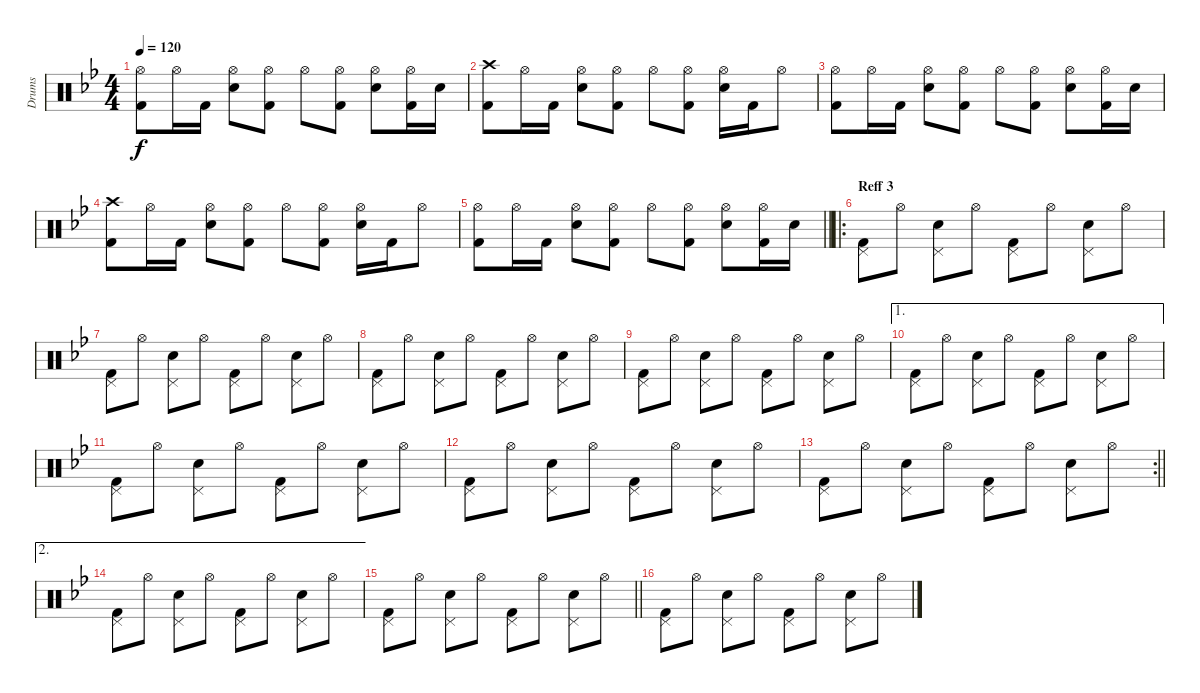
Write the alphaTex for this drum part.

\track ("Drums" "Drums") {instrument percussion}
\staff {score}
\articulation defaults
\ts (4 4)
\tempo 120
\clef neutral
\ks bb
("Kick (hit) 2" "Hi-Hat (open)").8{dy f} "Hi-Hat (open)".16 "Kick (hit) 2".16 ("Hi-Hat (open)" "Electric Snare (hit)").8 ("Hi-Hat (open)" "Kick (hit) 2").8 "Hi-Hat (open)".8 ("Hi-Hat (open)" "Kick (hit) 2").8 ("Hi-Hat (open)" "Electric Snare (hit)").8 ("Kick (hit) 2" "Hi-Hat (open)").16 "Electric Snare (hit)".16 |
("Kick (hit) 2" "Crash high (hit)").8 "Hi-Hat (open)".16 "Kick (hit) 2".16 ("Hi-Hat (open)" "Electric Snare (hit)").8 ("Hi-Hat (open)" "Kick (hit) 2").8 "Hi-Hat (open)".8 ("Hi-Hat (open)" "Kick (hit) 2").8 ("Hi-Hat (open)" "Electric Snare (hit)").16 "Kick (hit) 2".16 "Hi-Hat (open)".8 |
("Kick (hit) 2" "Hi-Hat (open)").8 "Hi-Hat (open)".16 "Kick (hit) 2".16 ("Hi-Hat (open)" "Electric Snare (hit)").8 ("Hi-Hat (open)" "Kick (hit) 2").8 "Hi-Hat (open)".8 ("Hi-Hat (open)" "Kick (hit) 2").8 ("Hi-Hat (open)" "Electric Snare (hit)").8 ("Kick (hit) 2" "Hi-Hat (open)").16 "Electric Snare (hit)".16 |
("Kick (hit) 2" "Crash high (hit)").8 "Hi-Hat (open)".16 "Kick (hit) 2".16 ("Hi-Hat (open)" "Electric Snare (hit)").8 ("Hi-Hat (open)" "Kick (hit) 2").8 "Hi-Hat (open)".8 ("Hi-Hat (open)" "Kick (hit) 2").8 ("Hi-Hat (open)" "Electric Snare (hit)").16 "Kick (hit) 2".16 "Hi-Hat (open)".8 |
\barLineRight lightlight
("Kick (hit) 2" "Hi-Hat (open)").8 "Hi-Hat (open)".16 "Kick (hit) 2".16 ("Hi-Hat (open)" "Electric Snare (hit)").8 ("Hi-Hat (open)" "Kick (hit) 2").8 "Hi-Hat (open)".8 ("Hi-Hat (open)" "Kick (hit) 2").8 ("Hi-Hat (open)" "Electric Snare (hit)").8 ("Kick (hit) 2" "Hi-Hat (open)").16 "Electric Snare (hit)".16 |
\ro
\section ("" "Reff 3")
("Pedal Hi-Hat (hit)" "Kick (hit) 2").8 "Hi-Hat (open)".8 ("Electric Snare (hit)" "Pedal Hi-Hat (hit)").8 "Hi-Hat (open)".8 ("Pedal Hi-Hat (hit)" "Kick (hit) 2").8 "Hi-Hat (open)".8 ("Electric Snare (hit)" "Pedal Hi-Hat (hit)").8 "Hi-Hat (open)".8 |
("Pedal Hi-Hat (hit)" "Kick (hit) 2").8 "Hi-Hat (open)".8 ("Electric Snare (hit)" "Pedal Hi-Hat (hit)").8 "Hi-Hat (open)".8 ("Pedal Hi-Hat (hit)" "Kick (hit) 2").8 "Hi-Hat (open)".8 ("Electric Snare (hit)" "Pedal Hi-Hat (hit)").8 "Hi-Hat (open)".8 |
("Pedal Hi-Hat (hit)" "Kick (hit) 2").8 "Hi-Hat (open)".8 ("Electric Snare (hit)" "Pedal Hi-Hat (hit)").8 "Hi-Hat (open)".8 ("Pedal Hi-Hat (hit)" "Kick (hit) 2").8 "Hi-Hat (open)".8 ("Electric Snare (hit)" "Pedal Hi-Hat (hit)").8 "Hi-Hat (open)".8 |
("Pedal Hi-Hat (hit)" "Kick (hit) 2").8 "Hi-Hat (open)".8 ("Electric Snare (hit)" "Pedal Hi-Hat (hit)").8 "Hi-Hat (open)".8 ("Pedal Hi-Hat (hit)" "Kick (hit) 2").8 "Hi-Hat (open)".8 ("Electric Snare (hit)" "Pedal Hi-Hat (hit)").8 "Hi-Hat (open)".8 |
\ae 1
("Pedal Hi-Hat (hit)" "Kick (hit) 2").8 "Hi-Hat (open)".8 ("Electric Snare (hit)" "Pedal Hi-Hat (hit)").8 "Hi-Hat (open)".8 ("Pedal Hi-Hat (hit)" "Kick (hit) 2").8 "Hi-Hat (open)".8 ("Electric Snare (hit)" "Pedal Hi-Hat (hit)").8 "Hi-Hat (open)".8 |
("Pedal Hi-Hat (hit)" "Kick (hit) 2").8 "Hi-Hat (open)".8 ("Electric Snare (hit)" "Pedal Hi-Hat (hit)").8 "Hi-Hat (open)".8 ("Pedal Hi-Hat (hit)" "Kick (hit) 2").8 "Hi-Hat (open)".8 ("Electric Snare (hit)" "Pedal Hi-Hat (hit)").8 "Hi-Hat (open)".8 |
("Pedal Hi-Hat (hit)" "Kick (hit) 2").8 "Hi-Hat (open)".8 ("Electric Snare (hit)" "Pedal Hi-Hat (hit)").8 "Hi-Hat (open)".8 ("Pedal Hi-Hat (hit)" "Kick (hit) 2").8 "Hi-Hat (open)".8 ("Electric Snare (hit)" "Pedal Hi-Hat (hit)").8 "Hi-Hat (open)".8 |
\rc 2
\barLineRight lightlight
("Pedal Hi-Hat (hit)" "Kick (hit) 2").8 "Hi-Hat (open)".8 ("Electric Snare (hit)" "Pedal Hi-Hat (hit)").8 "Hi-Hat (open)".8 ("Pedal Hi-Hat (hit)" "Kick (hit) 2").8 "Hi-Hat (open)".8 ("Electric Snare (hit)" "Pedal Hi-Hat (hit)").8 "Hi-Hat (open)".8 |
\ae 2
("Pedal Hi-Hat (hit)" "Kick (hit) 2").8 "Hi-Hat (open)".8 ("Electric Snare (hit)" "Pedal Hi-Hat (hit)").8 "Hi-Hat (open)".8 ("Pedal Hi-Hat (hit)" "Kick (hit) 2").8 "Hi-Hat (open)".8 ("Electric Snare (hit)" "Pedal Hi-Hat (hit)").8 "Hi-Hat (open)".8 |
\barLineRight lightlight
("Pedal Hi-Hat (hit)" "Kick (hit) 2").8 "Hi-Hat (open)".8 ("Electric Snare (hit)" "Pedal Hi-Hat (hit)").8 "Hi-Hat (open)".8 ("Pedal Hi-Hat (hit)" "Kick (hit) 2").8 "Hi-Hat (open)".8 ("Electric Snare (hit)" "Pedal Hi-Hat (hit)").8 "Hi-Hat (open)".8 |
("Pedal Hi-Hat (hit)" "Kick (hit) 2").8 "Hi-Hat (open)".8 ("Electric Snare (hit)" "Pedal Hi-Hat (hit)").8 "Hi-Hat (open)".8 ("Pedal Hi-Hat (hit)" "Kick (hit) 2").8 "Hi-Hat (open)".8 ("Electric Snare (hit)" "Pedal Hi-Hat (hit)").8 "Hi-Hat (open)".8
